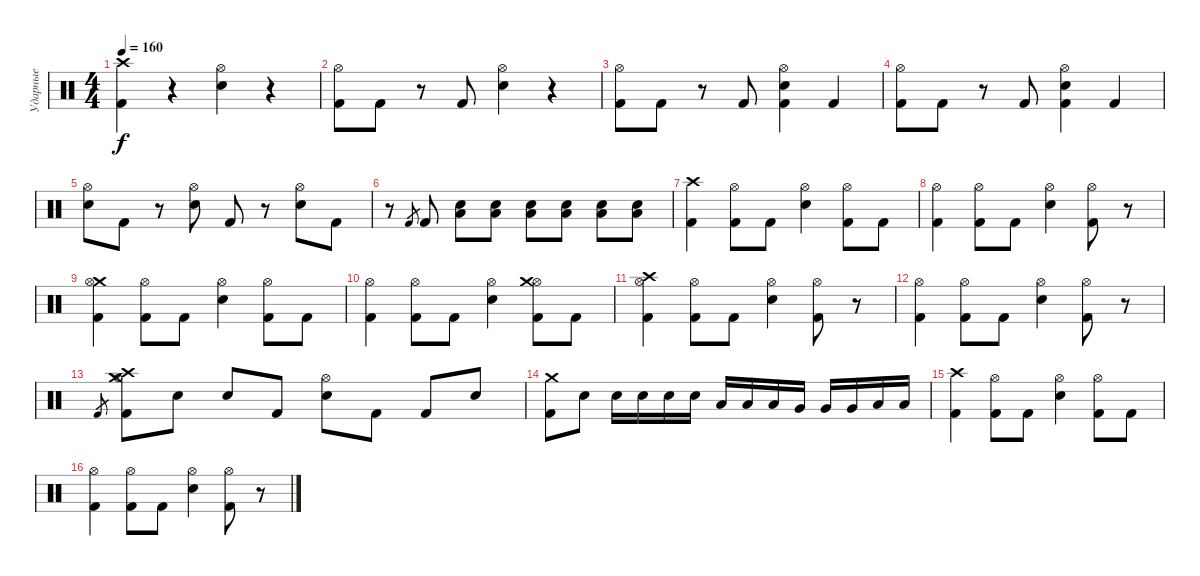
\track ("Ударные" "Ударные") {instrument percussion}
\staff {score}
\articulation defaults
\ts (4 4)
\tempo 160
\clef neutral
\ks c
("Kick (hit) 2" "Crash high (hit)").4{dy f} r.4 ("Snare (hit) 2" "Hi-Hat (open)").4 r.4 |
("Kick (hit) 2" "Hi-Hat (open)").8 "Kick (hit) 2".8 r.8 "Kick (hit) 2".8 ("Hi-Hat (open)" "Snare (hit) 2").4 r.4 |
("Kick (hit) 2" "Hi-Hat (open)").8 "Kick (hit) 2".8 r.8 "Kick (hit) 2".8 ("Hi-Hat (open)" "Snare (hit) 2" "Kick (hit) 2").4 "Kick (hit) 2".4 |
("Kick (hit) 2" "Hi-Hat (open)").8 "Kick (hit) 2".8 r.8 "Kick (hit) 2".8 ("Hi-Hat (open)" "Snare (hit) 2" "Kick (hit) 2").4 "Kick (hit) 2".4 |
("Snare (hit) 2" "Hi-Hat (open)").8 "Kick (hit) 2".8 r.8 ("Snare (hit) 2" "Hi-Hat (open)").8 "Kick (hit) 2".8 r.8 ("Snare (hit) 2" "Hi-Hat (open)").8 "Kick (hit) 2".8 |
r.8 "Kick (hit) 2".8{gr} "Kick (hit) 2".8 ("Low Tom (hit)" "Snare (hit) 2").8 ("Low Tom (hit)" "Snare (hit) 2").8 ("Low Tom (hit)" "Snare (hit) 2").8 ("Low Tom (hit)" "Snare (hit) 2").8 ("Low Tom (hit)" "Snare (hit) 2").8 ("Low Tom (hit)" "Snare (hit) 2").8 |
("Kick (hit) 2" "Crash high (hit)").4 ("Kick (hit) 2" "Hi-Hat (open)").8 "Kick (hit) 2".8 ("Hi-Hat (open)" "Snare (hit) 2").4 ("Kick (hit) 2" "Hi-Hat (open)").8 "Kick (hit) 2".8 |
("Kick (hit) 2" "Hi-Hat (open)").4 ("Kick (hit) 2" "Hi-Hat (open)").8 "Kick (hit) 2".8 ("Hi-Hat (open)" "Snare (hit) 2").4 ("Kick (hit) 2" "Hi-Hat (open)").8 r.8 |
("Kick (hit) 2" "Crash medium (hit)" "Hi-Hat (open)").4 ("Kick (hit) 2" "Hi-Hat (open)").8 "Kick (hit) 2".8 ("Hi-Hat (open)" "Snare (hit) 2").4 ("Kick (hit) 2" "Hi-Hat (open)").8 "Kick (hit) 2".8 |
("Kick (hit) 2" "Hi-Hat (open)").4 ("Kick (hit) 2" "Hi-Hat (open)").8 "Kick (hit) 2".8 ("Hi-Hat (open)" "Snare (hit) 2").4 ("Kick (hit) 2" "Hi-Hat (open)" "Crash medium (hit)").8 "Kick (hit) 2".8 |
("Kick (hit) 2" "Hi-Hat (open)" "Crash high (hit)").4 ("Kick (hit) 2" "Hi-Hat (open)").8 "Kick (hit) 2".8 ("Hi-Hat (open)" "Snare (hit) 2").4 ("Kick (hit) 2" "Hi-Hat (open)").8 r.8 |
("Kick (hit) 2" "Hi-Hat (open)").4 ("Kick (hit) 2" "Hi-Hat (open)").8 "Kick (hit) 2".8 ("Hi-Hat (open)" "Snare (hit) 2").4 ("Kick (hit) 2" "Hi-Hat (open)").8 r.8 |
"Kick (hit) 2".8{gr} ("Kick (hit) 2" "Hi-Hat (open)" "Crash high (hit)" "Crash medium (hit)").8 "Snare (hit) 2".8 "Snare (hit) 2".8 "Kick (hit) 2".8 ("Snare (hit) 2" "Hi-Hat (open)").8 "Kick (hit) 2".8 "Kick (hit) 2".8 "Snare (hit) 2".8 |
("Kick (hit) 2" "Crash medium (hit)").8 "Snare (hit) 2".8 "Snare (hit) 2".16 "Snare (hit) 2".16 "Snare (hit) 2".16 "Snare (hit) 2".16 "Low Tom (hit)".16 "Low Tom (hit)".16 "Low Tom (hit)".16 "Very Low Tom (hit)".16 "Very Low Tom (hit)".16 "Very Low Tom (hit)".16 "Low Tom (hit)".16 "Low Tom (hit)".16 |
("Kick (hit) 2" "Crash high (hit)").4 ("Kick (hit) 2" "Hi-Hat (open)").8 "Kick (hit) 2".8 ("Hi-Hat (open)" "Snare (hit) 2").4 ("Kick (hit) 2" "Hi-Hat (open)").8 "Kick (hit) 2".8 |
("Kick (hit) 2" "Hi-Hat (open)").4 ("Kick (hit) 2" "Hi-Hat (open)").8 "Kick (hit) 2".8 ("Hi-Hat (open)" "Snare (hit) 2").4 ("Kick (hit) 2" "Hi-Hat (open)").8 r.8
